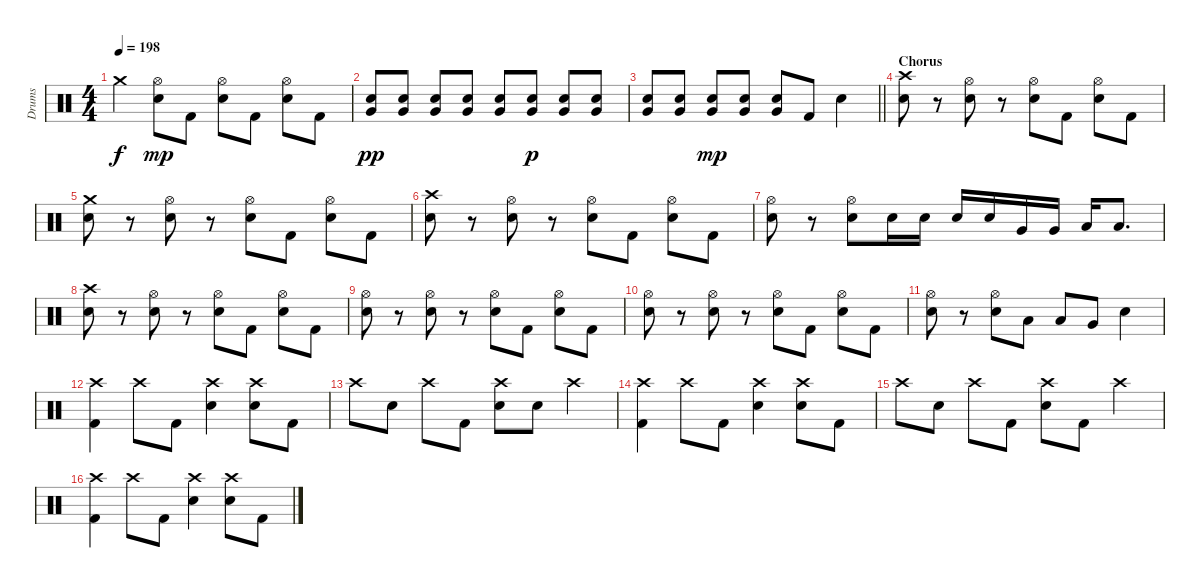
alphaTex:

\track ("Drums" "Drums") {instrument percussion}
\staff {score}
\articulation defaults
\ts (4 4)
\tempo 198
\clef neutral
\ks c "Crash medium (hit)"{t}.4{dy f}
("Hi-Hat (open)" "Snare (hit) 2").8{dy mp} "Kick (hit) 2".8 ("Hi-Hat (open)" "Snare (hit) 2").8 "Kick (hit) 2".8 ("Hi-Hat (open)" "Snare (hit) 2").8 "Kick (hit) 2".8 |
("Snare (hit) 2" "Very Low Tom (hit)").8{dy pp} ("Snare (hit) 2" "Very Low Tom (hit)").8 ("Snare (hit) 2" "Very Low Tom (hit)").8 ("Snare (hit) 2" "Very Low Tom (hit)").8 ("Snare (hit) 2" "Very Low Tom (hit)").8 ("Snare (hit) 2" "Very Low Tom (hit)").8{dy p} ("Snare (hit) 2" "Very Low Tom (hit)").8 ("Snare (hit) 2" "Very Low Tom (hit)").8 |
\barLineRight lightlight
("Snare (hit) 2" "Very Low Tom (hit)").8 ("Snare (hit) 2" "Very Low Tom (hit)").8 ("Snare (hit) 2" "Very Low Tom (hit)").8{dy mp} ("Snare (hit) 2" "Very Low Tom (hit)").8 ("Snare (hit) 2" "Very Low Tom (hit)").8 "Kick (hit) 2".8 "Snare (hit) 2".4 |
\section ("" "Chorus")
("Crash high (hit)" "Snare (hit) 2").8 r.8 ("Hi-Hat (open)" "Snare (hit) 2").8 r.8 ("Hi-Hat (open)" "Snare (hit) 2").8 "Kick (hit) 2".8 ("Hi-Hat (open)" "Snare (hit) 2").8 "Kick (hit) 2".8 |
("Crash medium (hit)" "Snare (hit) 2").8 r.8 ("Hi-Hat (open)" "Snare (hit) 2").8 r.8 ("Hi-Hat (open)" "Snare (hit) 2").8 "Kick (hit) 2".8 ("Hi-Hat (open)" "Snare (hit) 2").8 "Kick (hit) 2".8 |
("Crash high (hit)" "Snare (hit) 2").8 r.8 ("Hi-Hat (open)" "Snare (hit) 2").8 r.8 ("Hi-Hat (open)" "Snare (hit) 2").8 "Kick (hit) 2".8 ("Hi-Hat (open)" "Snare (hit) 2").8 "Kick (hit) 2".8 |
("Hi-Hat (open)" "Snare (hit) 2").8 r.8 ("Hi-Hat (open)" "Snare (hit) 2").8 "Snare (hit) 2".16 "Snare (hit) 2".16 "Snare (hit) 2".16 "Snare (hit) 2".16 "Very Low Tom (hit)".16 "Very Low Tom (hit)".16 "Low Floor Tom (hit)".16 "Low Floor Tom (hit)".8{d} |
("Crash high (hit)" "Snare (hit) 2").8 r.8 ("Hi-Hat (open)" "Snare (hit) 2").8 r.8 ("Hi-Hat (open)" "Snare (hit) 2").8 "Kick (hit) 2".8 ("Hi-Hat (open)" "Snare (hit) 2").8 "Kick (hit) 2".8 |
("Hi-Hat (open)" "Snare (hit) 2").8 r.8 ("Hi-Hat (open)" "Snare (hit) 2").8 r.8 ("Hi-Hat (open)" "Snare (hit) 2").8 "Kick (hit) 2".8 ("Hi-Hat (open)" "Snare (hit) 2").8 "Kick (hit) 2".8 |
("Hi-Hat (open)" "Snare (hit) 2").8 r.8 ("Hi-Hat (open)" "Snare (hit) 2").8 r.8 ("Hi-Hat (open)" "Snare (hit) 2").8 "Kick (hit) 2".8 ("Hi-Hat (open)" "Snare (hit) 2").8 "Kick (hit) 2".8 |
("Hi-Hat (open)" "Snare (hit) 2").8 r.8 ("Hi-Hat (open)" "Snare (hit) 2").8 "Low Floor Tom (hit)".8 "Low Floor Tom (hit)".8 "Very Low Tom (hit)".8 "Snare (hit) 2".4 |
("Crash high (hit)" "Kick (hit) 2").4 "Crash high (hit)".8 "Kick (hit) 2".8 ("Crash high (hit)" "Snare (hit) 2").4 ("Crash high (hit)" "Snare (hit) 2").8 "Kick (hit) 2".8 |
"Crash high (hit)".8 "Snare (hit) 2".8 "Crash high (hit)".8 "Kick (hit) 2".8 ("Crash high (hit)" "Snare (hit) 2").8 "Snare (hit) 2".8 "Crash high (hit)".4 |
("Crash high (hit)" "Kick (hit) 2").4 "Crash high (hit)".8 "Kick (hit) 2".8 ("Crash high (hit)" "Snare (hit) 2").4 ("Crash high (hit)" "Snare (hit) 2").8 "Kick (hit) 2".8 |
"Crash high (hit)".8 "Snare (hit) 2".8 "Crash high (hit)".8 "Kick (hit) 2".8 ("Crash high (hit)" "Snare (hit) 2").8 "Kick (hit) 2".8 "Crash high (hit)".4 |
("Crash high (hit)" "Kick (hit) 2").4 "Crash high (hit)".8 "Kick (hit) 2".8 ("Crash high (hit)" "Snare (hit) 2").4 ("Crash high (hit)" "Snare (hit) 2").8 "Kick (hit) 2".8
